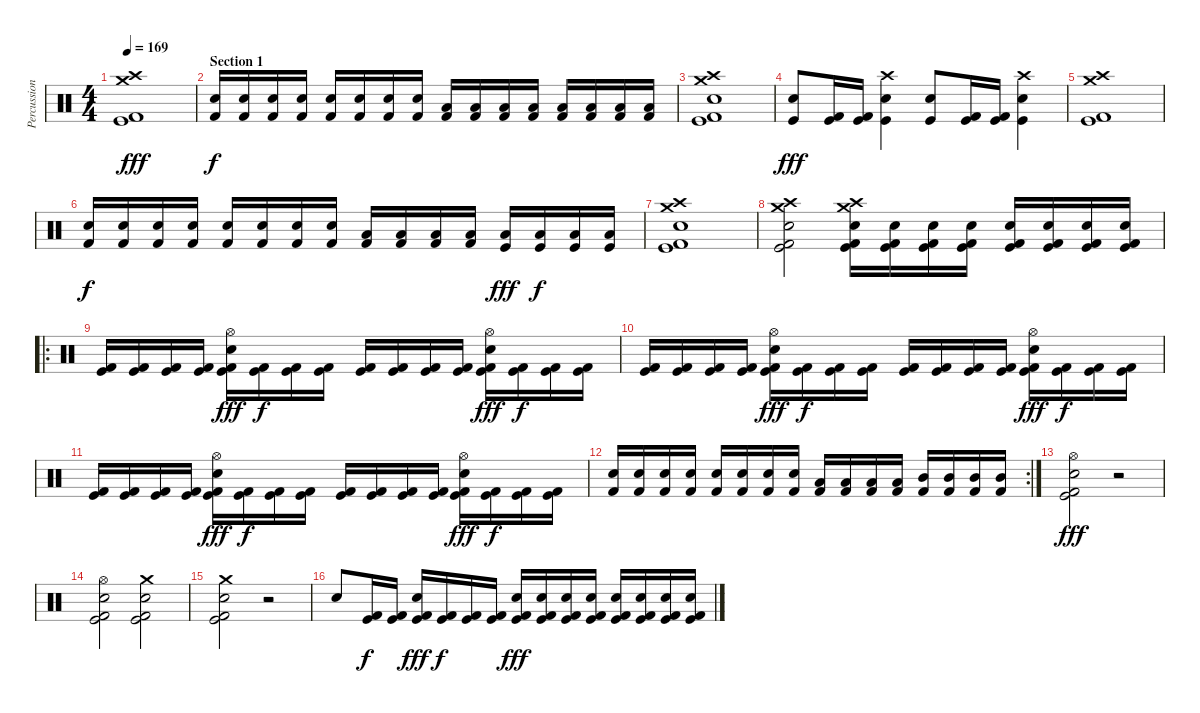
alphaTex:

\track ("Percussion" "Percussion") {instrument percussion}
\staff {score}
\articulation defaults
\ts (4 4)
\tempo 169
\clef neutral
\ks c
("Crash high (hit)" "Crash medium (hit)" "Kick (hit) 2" "Kick (hit)").1{dy fff} |
\section ("" "Section 1")
("Electric Snare (hit)" "Kick (hit) 2").16{dy f} ("Electric Snare (hit)" "Kick (hit) 2").16 ("Electric Snare (hit)" "Kick (hit) 2").16 ("Electric Snare (hit)" "Kick (hit) 2").16 ("Snare (hit) 2" "Kick (hit) 2").16 ("Snare (hit) 2" "Kick (hit) 2").16 ("Snare (hit) 2" "Kick (hit) 2").16 ("Snare (hit) 2" "Kick (hit) 2").16 ("Low Tom (hit)" "Kick (hit) 2").16 ("Low Tom (hit)" "Kick (hit) 2").16 ("Low Tom (hit)" "Kick (hit) 2").16 ("Low Tom (hit)" "Kick (hit) 2").16 ("Low Tom (hit)" "Kick (hit) 2").16 ("Low Tom (hit)" "Kick (hit) 2").16 ("Low Tom (hit)" "Kick (hit) 2").16 ("Low Tom (hit)" "Kick (hit) 2").16 |
("Crash medium (hit)" "Crash high (hit)" "Electric Snare (hit)" "Kick (hit) 2" "Kick (hit)").1 |
("Snare (hit) 2" "Kick (hit)").8{dy fff} ("Kick (hit) 2" "Kick (hit)").16 ("Kick (hit) 2" "Kick (hit)").16 ("Crash high (hit)" "Electric Snare (hit)" "Kick (hit)").4 ("Snare (hit) 2" "Kick (hit)").8 ("Kick (hit) 2" "Kick (hit)").16 ("Kick (hit) 2" "Kick (hit)").16 ("Crash high (hit)" "Electric Snare (hit)" "Kick (hit)").4 |
("Crash high (hit)" "Crash medium (hit)" "Kick (hit) 2" "Kick (hit)").1 |
("Electric Snare (hit)" "Kick (hit) 2").16{dy f} ("Electric Snare (hit)" "Kick (hit) 2").16 ("Electric Snare (hit)" "Kick (hit) 2").16 ("Electric Snare (hit)" "Kick (hit) 2").16 ("Snare (hit) 2" "Kick (hit) 2").16 ("Snare (hit) 2" "Kick (hit) 2").16 ("Snare (hit) 2" "Kick (hit) 2").16 ("Snare (hit) 2" "Kick (hit) 2").16 ("Low Tom (hit)" "Kick (hit) 2").16 ("Low Tom (hit)" "Kick (hit) 2").16 ("Low Tom (hit)" "Kick (hit) 2").16 ("Low Tom (hit)" "Kick (hit) 2").16 ("Low Tom (hit)" "Kick (hit)").16{dy fff} ("Low Tom (hit)" "Kick (hit)").16{dy f} ("Low Tom (hit)" "Kick (hit)").16 ("Low Tom (hit)" "Kick (hit)").16 |
("Crash medium (hit)" "Crash high (hit)" "Electric Snare (hit)" "Kick (hit) 2" "Kick (hit)").1 |
("Crash medium (hit)" "Crash high (hit)" "Snare (hit) 2" "Kick (hit) 2" "Kick (hit)").2 ("Crash medium (hit)" "Crash high (hit)" "Snare (hit) 2" "Kick (hit) 2" "Kick (hit)").16 ("Snare (hit) 2" "Kick (hit) 2" "Kick (hit)").16 ("Snare (hit) 2" "Kick (hit) 2" "Kick (hit)").16 ("Snare (hit) 2" "Kick (hit) 2" "Kick (hit)").16 ("Snare (hit) 2" "Kick (hit) 2" "Kick (hit)").16 ("Snare (hit) 2" "Kick (hit) 2" "Kick (hit)").16 ("Snare (hit) 2" "Kick (hit) 2" "Kick (hit)").16 ("Snare (hit) 2" "Kick (hit) 2" "Kick (hit)").16 |
\ro
("Kick (hit) 2" "Kick (hit)").16 ("Kick (hit) 2" "Kick (hit)").16 ("Kick (hit) 2" "Kick (hit)").16 ("Kick (hit) 2" "Kick (hit)").16 ("Hi-Hat (open)" "Electric Snare (hit)" "Kick (hit) 2" "Kick (hit)").16{dy fff} ("Kick (hit) 2" "Kick (hit)").16{dy f} ("Kick (hit) 2" "Kick (hit)").16 ("Kick (hit) 2" "Kick (hit)").16 ("Kick (hit) 2" "Kick (hit)").16 ("Kick (hit) 2" "Kick (hit)").16 ("Kick (hit) 2" "Kick (hit)").16 ("Kick (hit) 2" "Kick (hit)").16 ("Hi-Hat (open)" "Electric Snare (hit)" "Kick (hit) 2" "Kick (hit)").16{dy fff} ("Kick (hit) 2" "Kick (hit)").16{dy f} ("Kick (hit) 2" "Kick (hit)").16 ("Kick (hit) 2" "Kick (hit)").16 |
("Kick (hit) 2" "Kick (hit)").16 ("Kick (hit) 2" "Kick (hit)").16 ("Kick (hit) 2" "Kick (hit)").16 ("Kick (hit) 2" "Kick (hit)").16 ("Hi-Hat (open)" "Electric Snare (hit)" "Kick (hit) 2" "Kick (hit)").16{dy fff} ("Kick (hit) 2" "Kick (hit)").16{dy f} ("Kick (hit) 2" "Kick (hit)").16 ("Kick (hit) 2" "Kick (hit)").16 ("Kick (hit) 2" "Kick (hit)").16 ("Kick (hit) 2" "Kick (hit)").16 ("Kick (hit) 2" "Kick (hit)").16 ("Kick (hit) 2" "Kick (hit)").16 ("Hi-Hat (open)" "Electric Snare (hit)" "Kick (hit) 2" "Kick (hit)").16{dy fff} ("Kick (hit) 2" "Kick (hit)").16{dy f} ("Kick (hit) 2" "Kick (hit)").16 ("Kick (hit) 2" "Kick (hit)").16 |
("Kick (hit) 2" "Kick (hit)").16 ("Kick (hit) 2" "Kick (hit)").16 ("Kick (hit) 2" "Kick (hit)").16 ("Kick (hit) 2" "Kick (hit)").16 ("Hi-Hat (open)" "Electric Snare (hit)" "Kick (hit) 2" "Kick (hit)").16{dy fff} ("Kick (hit) 2" "Kick (hit)").16{dy f} ("Kick (hit) 2" "Kick (hit)").16 ("Kick (hit) 2" "Kick (hit)").16 ("Kick (hit) 2" "Kick (hit)").16 ("Kick (hit) 2" "Kick (hit)").16 ("Kick (hit) 2" "Kick (hit)").16 ("Kick (hit) 2" "Kick (hit)").16 ("Hi-Hat (open)" "Electric Snare (hit)" "Kick (hit) 2" "Kick (hit)").16{dy fff} ("Kick (hit) 2" "Kick (hit)").16{dy f} ("Kick (hit) 2" "Kick (hit)").16 ("Kick (hit) 2" "Kick (hit)").16 |
\rc 2
("Electric Snare (hit)" "Kick (hit) 2").16 ("Electric Snare (hit)" "Kick (hit) 2").16 ("Electric Snare (hit)" "Kick (hit) 2").16 ("Electric Snare (hit)" "Kick (hit) 2").16 ("Snare (hit) 2" "Kick (hit) 2").16 ("Snare (hit) 2" "Kick (hit) 2").16 ("Snare (hit) 2" "Kick (hit) 2").16 ("Snare (hit) 2" "Kick (hit) 2").16 ("Low Tom (hit)" "Kick (hit) 2").16 ("Low Tom (hit)" "Kick (hit) 2").16 ("Low Tom (hit)" "Kick (hit) 2").16 ("Low Tom (hit)" "Kick (hit) 2").16 ("Mid Tom (hit)" "Kick (hit) 2").16 ("Mid Tom (hit)" "Kick (hit) 2").16 ("Mid Tom (hit)" "Kick (hit) 2").16 ("Mid Tom (hit)" "Kick (hit) 2").16 |
("Hi-Hat (open)" "Snare (hit) 2" "Kick (hit) 2" "Kick (hit)").2{dy fff} r.2 |
("Hi-Hat (open)" "Snare (hit) 2" "Kick (hit) 2" "Kick (hit)").2 ("Crash medium (hit)" "Snare (hit) 2" "Kick (hit) 2" "Kick (hit)").2 |
("Crash medium (hit)" "Snare (hit) 2" "Kick (hit) 2" "Kick (hit)").2 r.2 |
"Electric Snare (hit)".8 ("Kick (hit) 2" "Kick (hit)").16{dy f} ("Kick (hit) 2" "Kick (hit)").16 ("Kick (hit) 2" "Electric Snare (hit)" "Kick (hit)").16{dy fff} ("Kick (hit) 2" "Kick (hit)").16{dy f} ("Kick (hit) 2" "Kick (hit)").16 ("Kick (hit) 2" "Kick (hit)").16 ("Kick (hit) 2" "Snare (hit) 2" "Kick (hit)").16{dy fff} ("Kick (hit) 2" "Snare (hit) 2" "Kick (hit)").16 ("Kick (hit) 2" "Snare (hit) 2" "Kick (hit)").16 ("Kick (hit) 2" "Snare (hit) 2" "Kick (hit)").16 ("Kick (hit) 2" "Snare (hit) 2" "Kick (hit)").16 ("Kick (hit) 2" "Snare (hit) 2" "Kick (hit)").16 ("Kick (hit) 2" "Snare (hit) 2" "Kick (hit)").16 ("Kick (hit) 2" "Snare (hit) 2" "Kick (hit)").16
